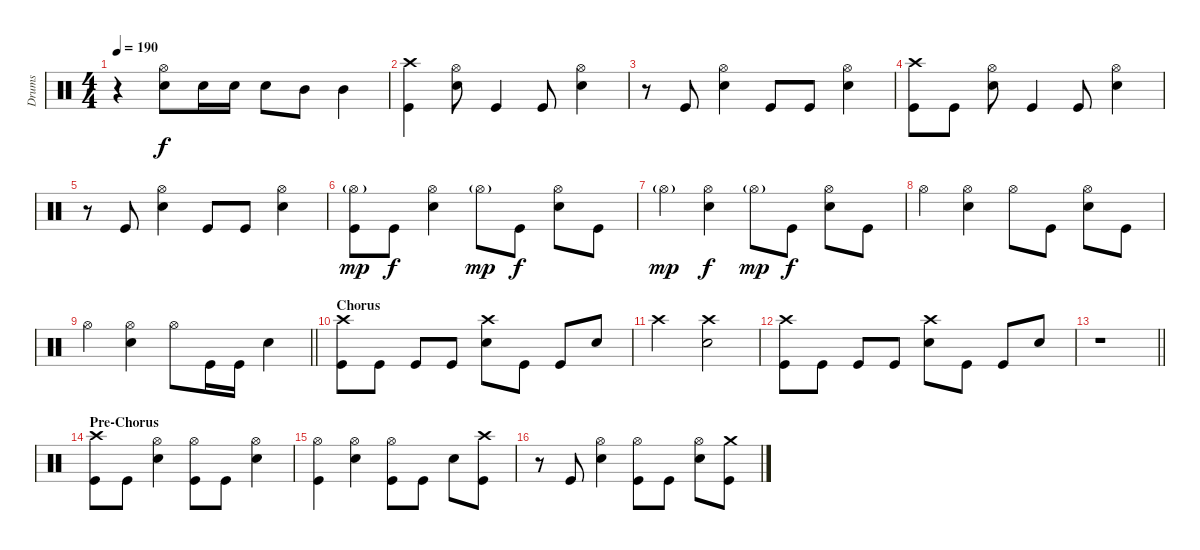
\track ("Drums" "Drums") {instrument percussion}
\staff {score}
\articulation defaults
\ts (4 4)
\tempo 190
\clef neutral
\ks c
r.4{dy f} ("Hi-Hat (open)" "Snare (hit) 2").8 "Snare (hit) 2".16 "Snare (hit) 2".16 "Snare (hit) 2".8 "Mid Tom (hit)".8 "Mid Tom (hit)".4 |
("Crash high (hit)" "Kick (hit)").4 ("Hi-Hat (open)" "Snare (hit) 2").8 "Kick (hit)".4 "Kick (hit)".8 ("Hi-Hat (open)" "Snare (hit) 2").4 |
r.8 "Kick (hit)".8 ("Hi-Hat (open)" "Snare (hit) 2").4 "Kick (hit)".8 "Kick (hit)".8 ("Hi-Hat (open)" "Snare (hit) 2").4 |
("Crash high (hit)" "Kick (hit)").8 "Kick (hit)".8 ("Hi-Hat (open)" "Snare (hit) 2").8 "Kick (hit)".4 "Kick (hit)".8 ("Hi-Hat (open)" "Snare (hit) 2").4 |
r.8 "Kick (hit)".8 ("Hi-Hat (open)" "Snare (hit) 2").4 "Kick (hit)".8 "Kick (hit)".8 ("Hi-Hat (open)" "Snare (hit) 2").4 |
("Hi-Hat (open)"{g} "Kick (hit)").8{dy mp} "Kick (hit)".8{dy f} ("Hi-Hat (open)" "Snare (hit) 2").4 "Hi-Hat (open)"{g}.8{dy mp} "Kick (hit)".8{dy f} ("Hi-Hat (open)" "Snare (hit) 2").8 "Kick (hit)".8 |
"Hi-Hat (open)"{g}.4{dy mp} ("Hi-Hat (open)" "Snare (hit) 2").4{dy f} "Hi-Hat (open)"{g}.8{dy mp} "Kick (hit)".8{dy f} ("Hi-Hat (open)" "Snare (hit) 2").8 "Kick (hit)".8 |
"Hi-Hat (open)".4 ("Hi-Hat (open)" "Snare (hit) 2").4 "Hi-Hat (open)".8 "Kick (hit)".8 ("Hi-Hat (open)" "Snare (hit) 2").8 "Kick (hit)".8 |
\barLineRight lightlight "Hi-Hat (open)".4
("Hi-Hat (open)" "Snare (hit) 2").4 "Hi-Hat (open)".8 "Kick (hit)".16 "Kick (hit)".16 "Snare (hit) 2".4 |
\section ("" "Chorus")
("Crash high (hit)" "Kick (hit)").8 "Kick (hit)".8 "Kick (hit)".8 "Kick (hit)".8 ("Crash high (hit)" "Snare (hit) 2").8 "Kick (hit)".8 "Kick (hit)".8 "Snare (hit) 2".8 |
"Crash high (hit)".2 ("Crash high (hit)" "Snare (hit) 2").2 |
("Crash high (hit)" "Kick (hit)").8 "Kick (hit)".8 "Kick (hit)".8 "Kick (hit)".8 ("Crash high (hit)" "Snare (hit) 2").8 "Kick (hit)".8 "Kick (hit)".8 "Snare (hit) 2".8 |
\barLineRight lightlight
r.1 |
\section ("" "Pre-Chorus")
("Crash high (hit)" "Kick (hit)").8 "Kick (hit)".8 ("Hi-Hat (open)" "Snare (hit) 2").4 ("Hi-Hat (open)" "Kick (hit)").8 "Kick (hit)".8 ("Hi-Hat (open)" "Snare (hit) 2").4 |
("Hi-Hat (open)" "Kick (hit)").4 ("Hi-Hat (open)" "Snare (hit) 2").4 ("Hi-Hat (open)" "Kick (hit)").8 "Kick (hit)".8 "Snare (hit) 2".8 ("Crash high (hit)" "Kick (hit)").8 |
r.8 "Kick (hit)".8 ("Hi-Hat (open)" "Snare (hit) 2").4 ("Hi-Hat (open)" "Kick (hit)").8 "Kick (hit)".8 ("Hi-Hat (open)" "Snare (hit) 2").8 ("Crash medium (hit)" "Kick (hit)").8
